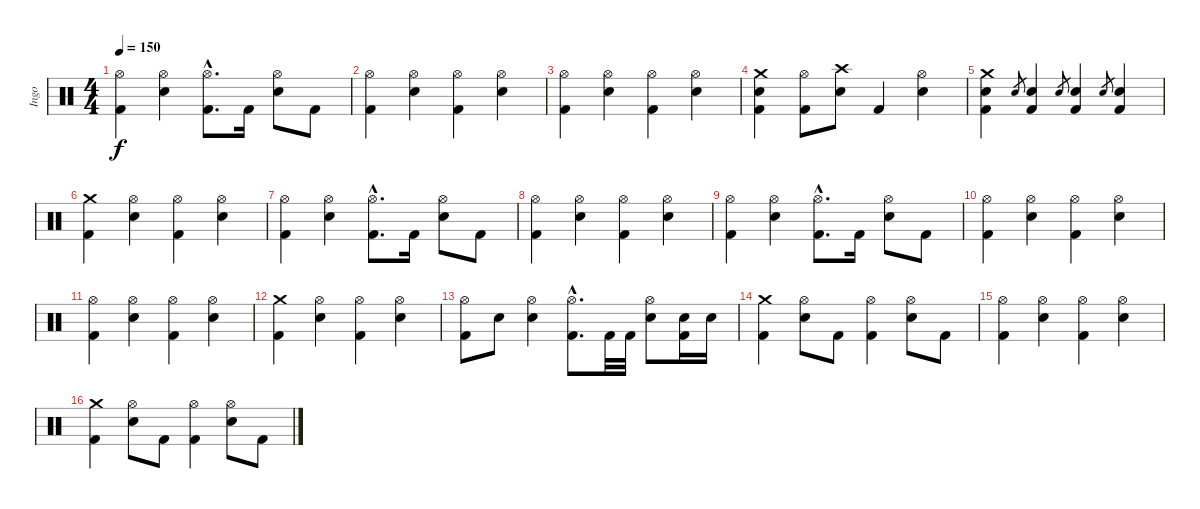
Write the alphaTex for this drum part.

\track ("Ingo" "Ingo") {instrument percussion}
\staff {score}
\articulation defaults
\ts (4 4)
\tempo 150
\clef neutral
\ks c
("Hi-Hat (open)" "Kick (hit) 2").4{dy f} ("Hi-Hat (open)" "Electric Snare (hit)").4 ("Hi-Hat (open)"{hac} "Kick (hit) 2"{hac}).8{d} "Kick (hit) 2".16 ("Hi-Hat (open)" "Electric Snare (hit)").8 "Kick (hit) 2".8 |
("Hi-Hat (open)" "Kick (hit) 2").4 ("Hi-Hat (open)" "Electric Snare (hit)").4 ("Hi-Hat (open)" "Kick (hit) 2").4 ("Hi-Hat (open)" "Electric Snare (hit)").4 |
("Hi-Hat (open)" "Kick (hit) 2").4 ("Hi-Hat (open)" "Electric Snare (hit)").4 ("Hi-Hat (open)" "Kick (hit) 2").4 ("Hi-Hat (open)" "Electric Snare (hit)").4 |
("Crash medium (hit)" "Electric Snare (hit)" "Kick (hit) 2").4 ("Hi-Hat (open)" "Kick (hit) 2").8 ("Crash high (hit)" "Electric Snare (hit)").8 "Kick (hit) 2".4 ("Hi-Hat (open)" "Electric Snare (hit)").4 |
("Crash medium (hit)" "Electric Snare (hit)" "Kick (hit) 2").4 "Electric Snare (hit)".8{gr} ("Electric Snare (hit)" "Kick (hit) 2").4 "Electric Snare (hit)".8{gr} ("Electric Snare (hit)" "Kick (hit) 2").4 "Electric Snare (hit)".8{gr} ("Electric Snare (hit)" "Kick (hit) 2").4 |
("Crash medium (hit)" "Kick (hit) 2").4 ("Hi-Hat (open)" "Electric Snare (hit)").4 ("Hi-Hat (open)" "Kick (hit) 2").4 ("Hi-Hat (open)" "Electric Snare (hit)").4 |
("Hi-Hat (open)" "Kick (hit) 2").4 ("Hi-Hat (open)" "Electric Snare (hit)").4 ("Hi-Hat (open)"{hac} "Kick (hit) 2"{hac}).8{d} "Kick (hit) 2".16 ("Hi-Hat (open)" "Electric Snare (hit)").8 "Kick (hit) 2".8 |
("Hi-Hat (open)" "Kick (hit) 2").4 ("Hi-Hat (open)" "Electric Snare (hit)").4 ("Hi-Hat (open)" "Kick (hit) 2").4 ("Hi-Hat (open)" "Electric Snare (hit)").4 |
("Hi-Hat (open)" "Kick (hit) 2").4 ("Hi-Hat (open)" "Electric Snare (hit)").4 ("Hi-Hat (open)"{hac} "Kick (hit) 2"{hac}).8{d} "Kick (hit) 2".16 ("Hi-Hat (open)" "Electric Snare (hit)").8 "Kick (hit) 2".8 |
("Hi-Hat (open)" "Kick (hit) 2").4 ("Hi-Hat (open)" "Electric Snare (hit)").4 ("Hi-Hat (open)" "Kick (hit) 2").4 ("Hi-Hat (open)" "Electric Snare (hit)").4 |
("Hi-Hat (open)" "Kick (hit) 2").4 ("Hi-Hat (open)" "Electric Snare (hit)").4 ("Hi-Hat (open)" "Kick (hit) 2").4 ("Hi-Hat (open)" "Electric Snare (hit)").4 |
("Crash medium (hit)" "Kick (hit) 2").4 ("Hi-Hat (open)" "Electric Snare (hit)").4 ("Hi-Hat (open)" "Kick (hit) 2").4 ("Hi-Hat (open)" "Electric Snare (hit)").4 |
("Hi-Hat (open)" "Kick (hit) 2").8 "Electric Snare (hit)".8 ("Hi-Hat (open)" "Electric Snare (hit)").4 ("Hi-Hat (open)"{hac} "Kick (hit) 2"{hac}).8{d} "Kick (hit) 2".32 "Kick (hit) 2".32 ("Hi-Hat (open)" "Electric Snare (hit)").8 ("Electric Snare (hit)" "Kick (hit) 2").16 "Electric Snare (hit)".16 |
("Crash medium (hit)" "Kick (hit) 2").4 ("Hi-Hat (open)" "Electric Snare (hit)").8 "Kick (hit) 2".8 ("Hi-Hat (open)" "Kick (hit) 2").4 ("Hi-Hat (open)" "Electric Snare (hit)").8 "Kick (hit) 2".8 |
("Hi-Hat (open)" "Kick (hit) 2").4 ("Hi-Hat (open)" "Electric Snare (hit)").4 ("Hi-Hat (open)" "Kick (hit) 2").4 ("Hi-Hat (open)" "Electric Snare (hit)").4 |
("Crash medium (hit)" "Kick (hit) 2").4 ("Hi-Hat (open)" "Electric Snare (hit)").8 "Kick (hit) 2".8 ("Hi-Hat (open)" "Kick (hit) 2").4 ("Hi-Hat (open)" "Electric Snare (hit)").8 "Kick (hit) 2".8
